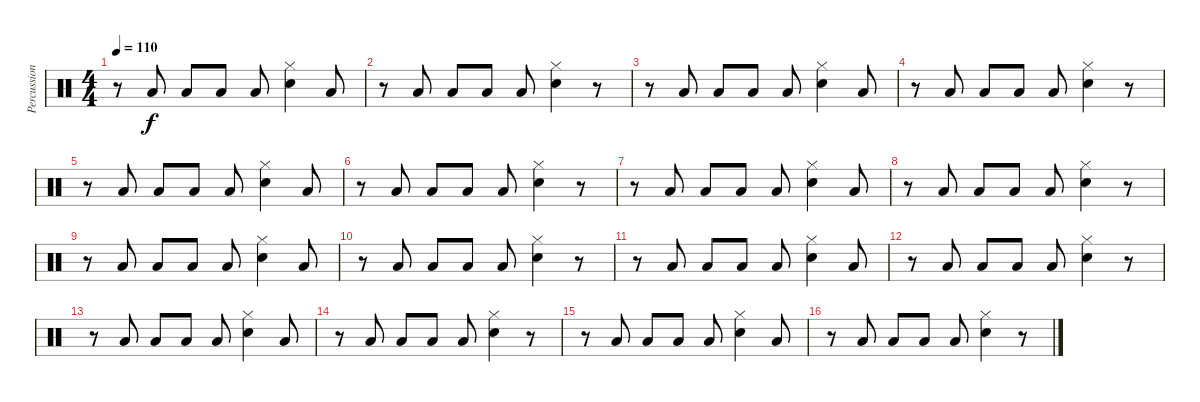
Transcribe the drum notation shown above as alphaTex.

\track ("Percussioni" "Percussion") {instrument percussion}
\staff {score}
\articulation defaults
\ts (4 4)
\tempo 110
\clef neutral
\ks c
r.8{dy f} "Low Tom (hit)".8 "Low Tom (hit)".8 "Low Tom (hit)".8 "Low Tom (hit)".8 ("Hi-Hat (closed)" "Electric Snare (hit)").4 "Low Tom (hit)".8 |
r.8 "Low Tom (hit)".8 "Low Tom (hit)".8 "Low Tom (hit)".8 "Low Tom (hit)".8 ("Hi-Hat (closed)" "Electric Snare (hit)").4 r.8 |
r.8 "Low Tom (hit)".8 "Low Tom (hit)".8 "Low Tom (hit)".8 "Low Tom (hit)".8 ("Hi-Hat (closed)" "Electric Snare (hit)").4 "Low Tom (hit)".8 |
r.8 "Low Tom (hit)".8 "Low Tom (hit)".8 "Low Tom (hit)".8 "Low Tom (hit)".8 ("Hi-Hat (closed)" "Electric Snare (hit)").4 r.8 |
r.8 "Low Tom (hit)".8 "Low Tom (hit)".8 "Low Tom (hit)".8 "Low Tom (hit)".8 ("Hi-Hat (closed)" "Electric Snare (hit)").4 "Low Tom (hit)".8 |
r.8 "Low Tom (hit)".8 "Low Tom (hit)".8 "Low Tom (hit)".8 "Low Tom (hit)".8 ("Hi-Hat (closed)" "Electric Snare (hit)").4 r.8 |
r.8 "Low Tom (hit)".8 "Low Tom (hit)".8 "Low Tom (hit)".8 "Low Tom (hit)".8 ("Hi-Hat (closed)" "Electric Snare (hit)").4 "Low Tom (hit)".8 |
r.8 "Low Tom (hit)".8 "Low Tom (hit)".8 "Low Tom (hit)".8 "Low Tom (hit)".8 ("Hi-Hat (closed)" "Electric Snare (hit)").4 r.8 |
r.8 "Low Tom (hit)".8 "Low Tom (hit)".8 "Low Tom (hit)".8 "Low Tom (hit)".8 ("Hi-Hat (closed)" "Electric Snare (hit)").4 "Low Tom (hit)".8 |
r.8 "Low Tom (hit)".8 "Low Tom (hit)".8 "Low Tom (hit)".8 "Low Tom (hit)".8 ("Hi-Hat (closed)" "Electric Snare (hit)").4 r.8 |
r.8 "Low Tom (hit)".8 "Low Tom (hit)".8 "Low Tom (hit)".8 "Low Tom (hit)".8 ("Hi-Hat (closed)" "Electric Snare (hit)").4 "Low Tom (hit)".8 |
r.8 "Low Tom (hit)".8 "Low Tom (hit)".8 "Low Tom (hit)".8 "Low Tom (hit)".8 ("Hi-Hat (closed)" "Electric Snare (hit)").4 r.8 |
r.8 "Low Tom (hit)".8 "Low Tom (hit)".8 "Low Tom (hit)".8 "Low Tom (hit)".8 ("Hi-Hat (closed)" "Electric Snare (hit)").4 "Low Tom (hit)".8 |
r.8 "Low Tom (hit)".8 "Low Tom (hit)".8 "Low Tom (hit)".8 "Low Tom (hit)".8 ("Hi-Hat (closed)" "Electric Snare (hit)").4 r.8 |
r.8 "Low Tom (hit)".8 "Low Tom (hit)".8 "Low Tom (hit)".8 "Low Tom (hit)".8 ("Hi-Hat (closed)" "Electric Snare (hit)").4 "Low Tom (hit)".8 |
r.8 "Low Tom (hit)".8 "Low Tom (hit)".8 "Low Tom (hit)".8 "Low Tom (hit)".8 ("Hi-Hat (closed)" "Electric Snare (hit)").4 r.8
